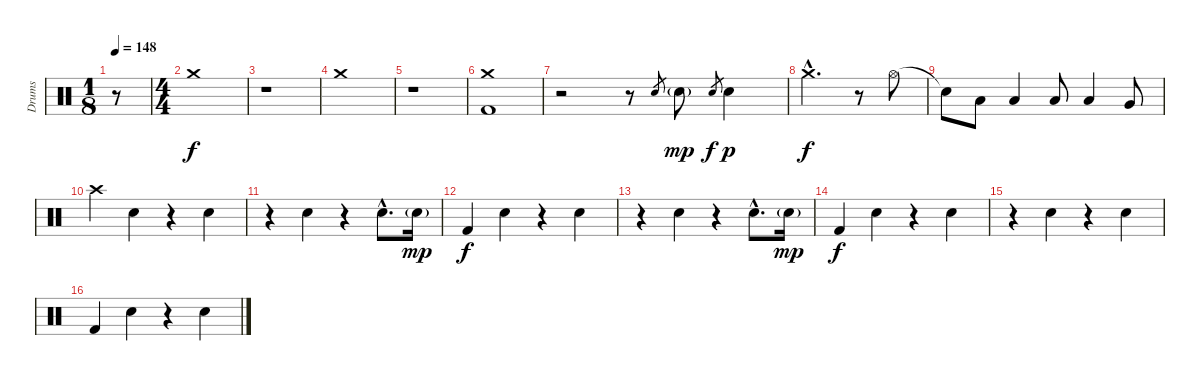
\track ("Drums" "Drums") {instrument percussion}
\staff {score}
\articulation defaults
\ts (1 8)
\tempo 148
\clef neutral
\ks c
r.8{dy f} |
\ts (4 4)
"Crash medium (hit)".1 |
r.1 |
"Crash medium (hit)".1 |
r.1 |
("Crash medium (hit)" "Kick (hit) 2").1 |
r.2 r.8 "Electric Snare (hit)".8{gr} "Electric Snare (hit)"{g}.8{dy mp} "Electric Snare (hit)".8{gr dy f} "Electric Snare (hit)".4{dy p} |
"Crash medium (hit)"{hac}.2{d dy f} r.8 "Hi-Hat (open)".8 |
"Snare (hit)"{t}.8 "Low Tom (hit)".8 "Low Tom (hit)".4 "Low Tom (hit)".8 "Low Tom (hit)".4 "Very Low Tom (hit)".8 |
"Crash high (hit)".4 "Electric Snare (hit)".4 r.4 "Electric Snare (hit)".4 |
r.4 "Electric Snare (hit)".4 r.4 "Electric Snare (hit)"{hac}.8{d} "Electric Snare (hit)"{g}.16{dy mp} |
"Kick (hit) 2".4{dy f} "Electric Snare (hit)".4 r.4 "Electric Snare (hit)".4 |
r.4 "Electric Snare (hit)".4 r.4 "Electric Snare (hit)"{hac}.8{d} "Electric Snare (hit)"{g}.16{dy mp} |
"Kick (hit) 2".4{dy f} "Electric Snare (hit)".4 r.4 "Electric Snare (hit)".4 |
r.4 "Electric Snare (hit)".4 r.4 "Electric Snare (hit)".4 |
"Kick (hit) 2".4 "Electric Snare (hit)".4 r.4 "Electric Snare (hit)".4
